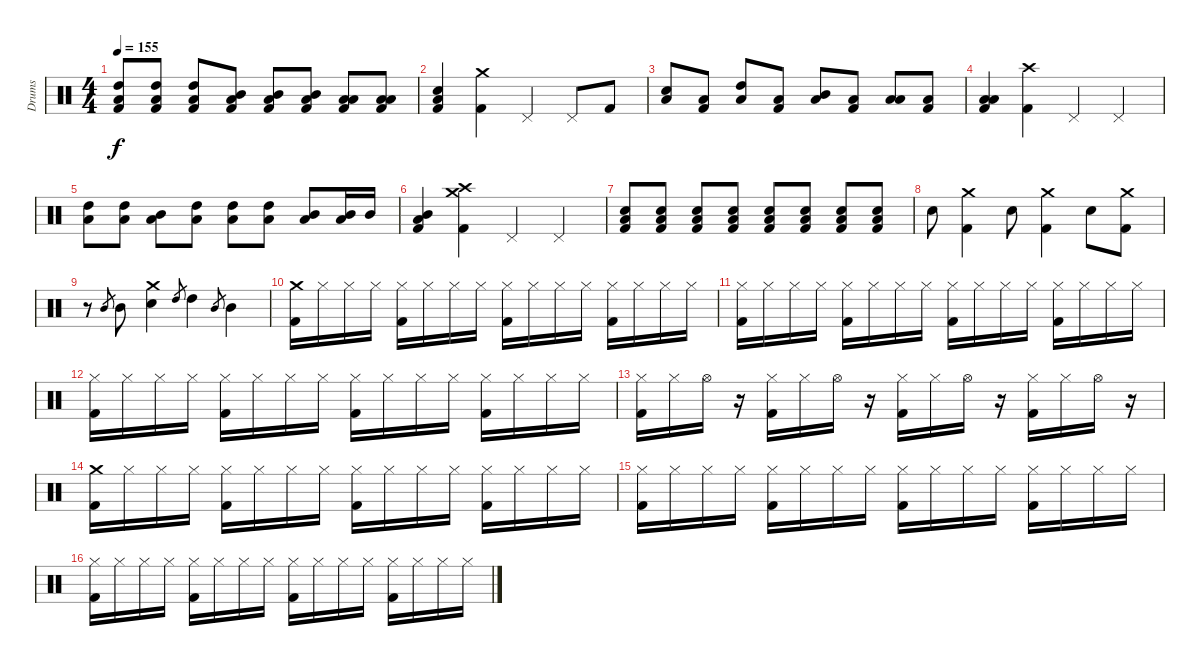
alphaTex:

\track ("Drums" "Drums") {instrument percussion}
\staff {score}
\articulation defaults
\ts (4 4)
\tempo 155
\clef neutral
\ks c
("Kick (hit) 2" "High Tom (hit)" "Low Tom (hit)").8{dy f} ("Kick (hit) 2" "High Tom (hit)" "Low Tom (hit)").8 ("Kick (hit) 2" "High Tom (hit)" "Low Tom (hit)").8 ("Kick (hit) 2" "Mid Tom (hit)" "Low Tom (hit)").8 ("Kick (hit) 2" "Mid Tom (hit)" "Low Tom (hit)").8 ("Kick (hit) 2" "Mid Tom (hit)" "Low Tom (hit)").8 ("Kick (hit) 2" "Low Tom (hit)" "Low Tom (hit)").8 ("Kick (hit) 2" "Low Tom (hit)" "Low Tom (hit)").8 |
("Kick (hit) 2" "Electric Snare (hit)" "Low Tom (hit)").4 ("Crash medium (hit)" "Kick (hit) 2").4 "Pedal Hi-Hat (hit)".4 "Pedal Hi-Hat (hit)".8 "Kick (hit) 2".8 |
("Electric Snare (hit)" "Low Tom (hit)").8 ("Kick (hit) 2" "Low Tom (hit)").8 ("Low Tom (hit)" "High Tom (hit)").8 ("Kick (hit) 2" "Low Tom (hit)").8 ("Low Tom (hit)" "Mid Tom (hit)").8 ("Kick (hit) 2" "Low Tom (hit)").8 ("Low Tom (hit)" "Low Tom (hit)").8 ("Kick (hit) 2" "Low Tom (hit)").8 |
("Kick (hit) 2" "Low Tom (hit)" "Low Tom (hit)").4 ("Crash high (hit)" "Kick (hit) 2").4 "Pedal Hi-Hat (hit)".4 "Pedal Hi-Hat (hit)".4 |
("Low Tom (hit)" "High Tom (hit)").8 ("Low Tom (hit)" "High Tom (hit)").8 ("Low Tom (hit)" "Mid Tom (hit)").8 ("Low Tom (hit)" "High Tom (hit)").8 ("Low Tom (hit)" "High Tom (hit)").8 ("Low Tom (hit)" "High Tom (hit)").8 ("Low Tom (hit)" "Mid Tom (hit)").8 ("Low Tom (hit)" "Mid Tom (hit)").16 "Mid Tom (hit)".16 |
("Kick (hit) 2" "Low Tom (hit)" "Mid Tom (hit)").4 ("Crash medium (hit)" "Kick (hit) 2" "Crash high (hit)").4 "Pedal Hi-Hat (hit)".4 "Pedal Hi-Hat (hit)".4 |
("Kick (hit) 2" "Electric Snare (hit)" "Low Tom (hit)").8 ("Kick (hit) 2" "Electric Snare (hit)" "Low Tom (hit)").8 ("Kick (hit) 2" "Electric Snare (hit)" "Low Tom (hit)").8 ("Kick (hit) 2" "Electric Snare (hit)" "Low Tom (hit)").8 ("Kick (hit) 2" "Electric Snare (hit)" "Low Tom (hit)").8 ("Kick (hit) 2" "Electric Snare (hit)" "Low Tom (hit)").8 ("Kick (hit) 2" "Electric Snare (hit)" "Low Tom (hit)").8 ("Kick (hit) 2" "Electric Snare (hit)" "Low Tom (hit)").8 |
"Electric Snare (hit)".8 ("Crash medium (hit)" "Kick (hit) 2").4 "Electric Snare (hit)".8 ("Crash medium (hit)" "Kick (hit) 2").4 "Electric Snare (hit)".8 ("Crash medium (hit)" "Kick (hit) 2").8 |
r.8 "Mid Tom (hit)".8{gr} "Mid Tom (hit)".8 ("Crash medium (hit)" "Electric Snare (hit)").4 "High Tom (hit)".8{gr} "High Tom (hit)".4 "Mid Tom (hit)".8{gr} "Mid Tom (hit)".4 |
("Crash medium (hit)" "Kick (hit) 2").16 "Hi-Hat (closed)".16 "Hi-Hat (closed)".16 "Hi-Hat (closed)".16 ("Hi-Hat (closed)" "Kick (hit) 2").16 "Hi-Hat (closed)".16 "Hi-Hat (closed)".16 "Hi-Hat (closed)".16 ("Hi-Hat (closed)" "Kick (hit) 2").16 "Hi-Hat (closed)".16 "Hi-Hat (closed)".16 "Hi-Hat (closed)".16 ("Hi-Hat (closed)" "Kick (hit) 2").16 "Hi-Hat (closed)".16 "Hi-Hat (closed)".16 "Hi-Hat (closed)".16 |
("Hi-Hat (closed)" "Kick (hit) 2").16 "Hi-Hat (closed)".16 "Hi-Hat (closed)".16 "Hi-Hat (closed)".16 ("Hi-Hat (closed)" "Kick (hit) 2").16 "Hi-Hat (closed)".16 "Hi-Hat (closed)".16 "Hi-Hat (closed)".16 ("Hi-Hat (closed)" "Kick (hit) 2").16 "Hi-Hat (closed)".16 "Hi-Hat (closed)".16 "Hi-Hat (closed)".16 ("Hi-Hat (closed)" "Kick (hit) 2").16 "Hi-Hat (closed)".16 "Hi-Hat (closed)".16 "Hi-Hat (closed)".16 |
("Hi-Hat (closed)" "Kick (hit) 2").16 "Hi-Hat (closed)".16 "Hi-Hat (closed)".16 "Hi-Hat (closed)".16 ("Hi-Hat (closed)" "Kick (hit) 2").16 "Hi-Hat (closed)".16 "Hi-Hat (closed)".16 "Hi-Hat (closed)".16 ("Hi-Hat (closed)" "Kick (hit) 2").16 "Hi-Hat (closed)".16 "Hi-Hat (closed)".16 "Hi-Hat (closed)".16 ("Hi-Hat (closed)" "Kick (hit) 2").16 "Hi-Hat (closed)".16 "Hi-Hat (closed)".16 "Hi-Hat (closed)".16 |
("Hi-Hat (closed)" "Kick (hit) 2").16 "Hi-Hat (closed)".16 "Hi-Hat (open)".16 r.16 ("Hi-Hat (closed)" "Kick (hit) 2").16 "Hi-Hat (closed)".16 "Hi-Hat (open)".16 r.16 ("Hi-Hat (closed)" "Kick (hit) 2").16 "Hi-Hat (closed)".16 "Hi-Hat (open)".16 r.16 ("Hi-Hat (closed)" "Kick (hit) 2").16 "Hi-Hat (closed)".16 "Hi-Hat (open)".16 r.16 |
("Crash medium (hit)" "Kick (hit) 2").16 "Hi-Hat (closed)".16 "Hi-Hat (closed)".16 "Hi-Hat (closed)".16 ("Hi-Hat (closed)" "Kick (hit) 2").16 "Hi-Hat (closed)".16 "Hi-Hat (closed)".16 "Hi-Hat (closed)".16 ("Hi-Hat (closed)" "Kick (hit) 2").16 "Hi-Hat (closed)".16 "Hi-Hat (closed)".16 "Hi-Hat (closed)".16 ("Hi-Hat (closed)" "Kick (hit) 2").16 "Hi-Hat (closed)".16 "Hi-Hat (closed)".16 "Hi-Hat (closed)".16 |
("Hi-Hat (closed)" "Kick (hit) 2").16 "Hi-Hat (closed)".16 "Hi-Hat (closed)".16 "Hi-Hat (closed)".16 ("Hi-Hat (closed)" "Kick (hit) 2").16 "Hi-Hat (closed)".16 "Hi-Hat (closed)".16 "Hi-Hat (closed)".16 ("Hi-Hat (closed)" "Kick (hit) 2").16 "Hi-Hat (closed)".16 "Hi-Hat (closed)".16 "Hi-Hat (closed)".16 ("Hi-Hat (closed)" "Kick (hit) 2").16 "Hi-Hat (closed)".16 "Hi-Hat (closed)".16 "Hi-Hat (closed)".16 |
("Hi-Hat (closed)" "Kick (hit) 2").16 "Hi-Hat (closed)".16 "Hi-Hat (closed)".16 "Hi-Hat (closed)".16 ("Hi-Hat (closed)" "Kick (hit) 2").16 "Hi-Hat (closed)".16 "Hi-Hat (closed)".16 "Hi-Hat (closed)".16 ("Hi-Hat (closed)" "Kick (hit) 2").16 "Hi-Hat (closed)".16 "Hi-Hat (closed)".16 "Hi-Hat (closed)".16 ("Hi-Hat (closed)" "Kick (hit) 2").16 "Hi-Hat (closed)".16 "Hi-Hat (closed)".16 "Hi-Hat (closed)".16
